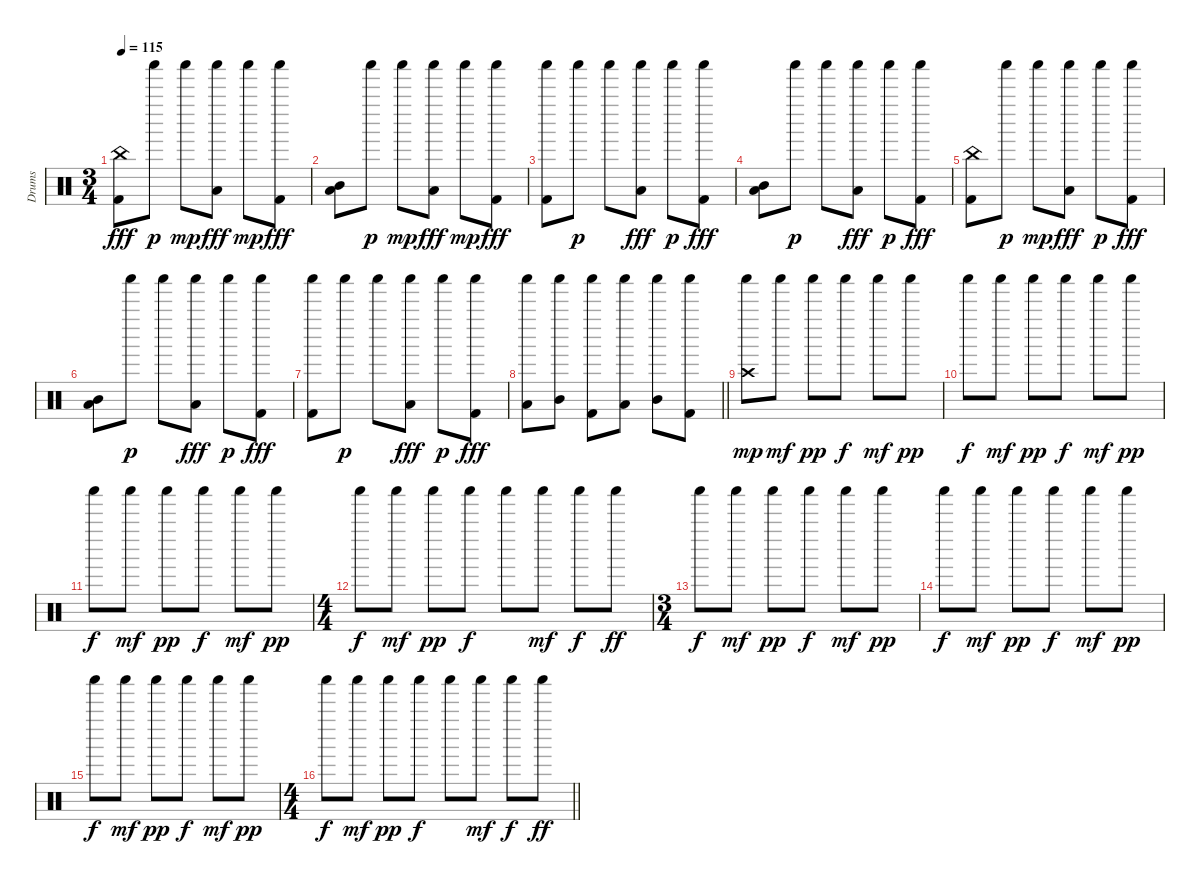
\track ("Drums" "Drums") {instrument percussion}
\staff {score}
\articulation defaults
\ts (3 4)
\section ("" "")
\tempo 115
\clef neutral
\ks c
("China (hit)" "Kick (hit) 2").8{dy fff} "Shaker (hit)".8{dy p} "Shaker (hit)".8{dy mp} ("Shaker (hit)" "Low Tom (hit)").8{dy fff} "Shaker (hit)".8{dy mp} ("Shaker (hit)" "Kick (hit) 2").8{dy fff} |
("Mid Tom (hit)" "Low Tom (hit)").8 "Shaker (hit)".8{dy p} "Shaker (hit)".8{dy mp} ("Shaker (hit)" "Low Tom (hit)").8{dy fff} "Shaker (hit)".8{dy mp} ("Shaker (hit)" "Kick (hit) 2").8{dy fff} |
("Shaker (hit)" "Kick (hit) 2").8 "Shaker (hit)".8{dy p} "Shaker (hit)".8 ("Shaker (hit)" "Low Tom (hit)").8{dy fff} "Shaker (hit)".8{dy p} ("Shaker (hit)" "Kick (hit) 2").8{dy fff} |
("Mid Tom (hit)" "Low Tom (hit)").8 "Shaker (hit)".8{dy p} "Shaker (hit)".8 ("Shaker (hit)" "Low Tom (hit)").8{dy fff} "Shaker (hit)".8{dy p} ("Shaker (hit)" "Kick (hit) 2").8{dy fff} |
("China (hit)" "Kick (hit) 2").8 "Shaker (hit)".8{dy p} "Shaker (hit)".8{dy mp} ("Shaker (hit)" "Low Tom (hit)").8{dy fff} "Shaker (hit)".8{dy p} ("Shaker (hit)" "Kick (hit) 2").8{dy fff} |
("Mid Tom (hit)" "Low Tom (hit)").8 "Shaker (hit)".8{dy p} "Shaker (hit)".8 ("Shaker (hit)" "Low Tom (hit)").8{dy fff} "Shaker (hit)".8{dy p} ("Shaker (hit)" "Kick (hit) 2").8{dy fff} |
("Shaker (hit)" "Kick (hit) 2").8 "Shaker (hit)".8{dy p} "Shaker (hit)".8 ("Shaker (hit)" "Low Tom (hit)").8{dy fff} "Shaker (hit)".8{dy p} ("Shaker (hit)" "Kick (hit) 2").8{dy fff} |
\barLineRight lightlight
("Shaker (hit)" "Low Tom (hit)").8 ("Shaker (hit)" "Mid Tom (hit)").8 ("Shaker (hit)" "Kick (hit) 2").8 ("Shaker (hit)" "Low Tom (hit)").8 ("Shaker (hit)" "Mid Tom (hit)").8 ("Shaker (hit)" "Kick (hit) 2").8 |
\section ("" "")
("Crash high (hit)" "Shaker (hit)").8{dy mp} "Shaker (hit)".8{dy mf} "Shaker (hit)".8{dy pp} "Shaker (hit)".8{dy f} "Shaker (hit)".8{dy mf} "Shaker (hit)".8{dy pp} |
"Shaker (hit)".8{dy f} "Shaker (hit)".8{dy mf} "Shaker (hit)".8{dy pp} "Shaker (hit)".8{dy f} "Shaker (hit)".8{dy mf} "Shaker (hit)".8{dy pp} |
"Shaker (hit)".8{dy f} "Shaker (hit)".8{dy mf} "Shaker (hit)".8{dy pp} "Shaker (hit)".8{dy f} "Shaker (hit)".8{dy mf} "Shaker (hit)".8{dy pp} |
\ts (4 4)
"Shaker (hit)".8{dy f} "Shaker (hit)".8{dy mf} "Shaker (hit)".8{dy pp} "Shaker (hit)".8{dy f} "Shaker (hit)".8 "Shaker (hit)".8{dy mf} "Shaker (hit)".8{dy f} "Shaker (hit)".8{dy ff} |
\ts (3 4)
"Shaker (hit)".8{dy f} "Shaker (hit)".8{dy mf} "Shaker (hit)".8{dy pp} "Shaker (hit)".8{dy f} "Shaker (hit)".8{dy mf} "Shaker (hit)".8{dy pp} |
"Shaker (hit)".8{dy f} "Shaker (hit)".8{dy mf} "Shaker (hit)".8{dy pp} "Shaker (hit)".8{dy f} "Shaker (hit)".8{dy mf} "Shaker (hit)".8{dy pp} |
"Shaker (hit)".8{dy f} "Shaker (hit)".8{dy mf} "Shaker (hit)".8{dy pp} "Shaker (hit)".8{dy f} "Shaker (hit)".8{dy mf} "Shaker (hit)".8{dy pp} |
\ts (4 4)
\barLineRight lightlight "Shaker (hit)".8{dy f} "Shaker (hit)".8{dy mf} "Shaker (hit)".8{dy pp} "Shaker (hit)".8{dy f} "Shaker (hit)".8 "Shaker (hit)".8{dy mf} "Shaker (hit)".8{dy f} "Shaker (hit)".8{dy ff}
